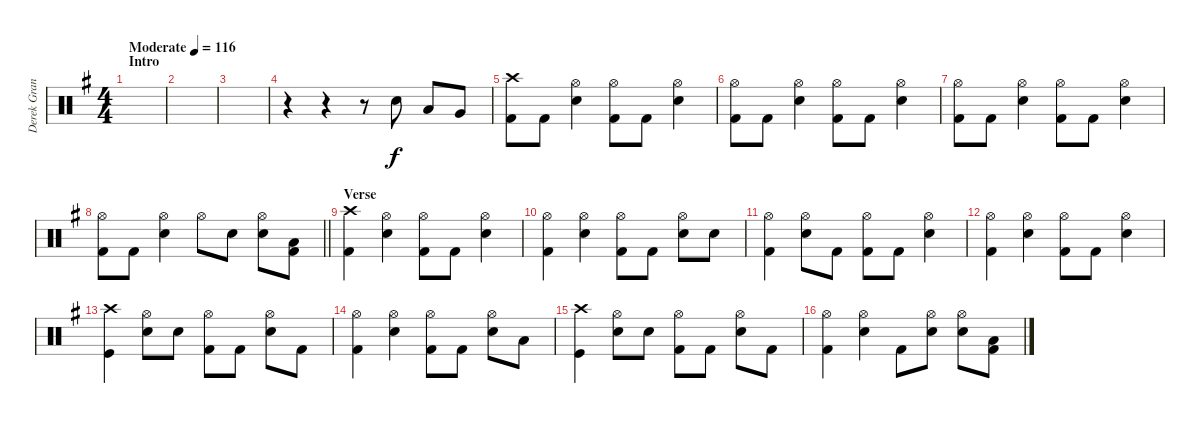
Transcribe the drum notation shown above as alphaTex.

\track ("Derek Grant - Drums" "Derek Gran") {instrument percussion}
\staff {score}
\articulation defaults
\ts (4 4)
\section ("" "Intro")
\tempo (116 "Moderate")
\clef neutral
\ks g
|
|
|
r.4 r.4 r.8 "Snare (hit) 2".8 "Low Tom (hit)".8 "Very Low Tom (hit)".8 |
("Crash high (hit)" "Kick (hit) 2").8 "Kick (hit) 2".8 ("Hi-Hat (open)" "Snare (hit) 2").4 ("Hi-Hat (open)" "Kick (hit) 2").8 "Kick (hit) 2".8 ("Hi-Hat (open)" "Snare (hit) 2").4 |
("Hi-Hat (open)" "Kick (hit) 2").8 "Kick (hit) 2".8 ("Hi-Hat (open)" "Snare (hit) 2").4 ("Hi-Hat (open)" "Kick (hit) 2").8 "Kick (hit) 2".8 ("Hi-Hat (open)" "Snare (hit) 2").4 |
("Hi-Hat (open)" "Kick (hit) 2").8 "Kick (hit) 2".8 ("Hi-Hat (open)" "Snare (hit) 2").4 ("Hi-Hat (open)" "Kick (hit) 2").8 "Kick (hit) 2".8 ("Hi-Hat (open)" "Snare (hit) 2").4 |
\barLineRight lightlight
("Hi-Hat (open)" "Kick (hit) 2").8 "Kick (hit) 2".8 ("Hi-Hat (open)" "Snare (hit) 2").4 "Hi-Hat (open)".8 "Snare (hit) 2".8 ("Hi-Hat (open)" "Snare (hit) 2").8 ("Low Floor Tom (hit)" "Kick (hit) 2").8 |
\section ("" "Verse")
("Crash high (hit)" "Kick (hit) 2").4 ("Hi-Hat (open)" "Snare (hit) 2").4 ("Hi-Hat (open)" "Kick (hit) 2").8 "Kick (hit) 2".8 ("Hi-Hat (open)" "Snare (hit) 2").4 |
("Hi-Hat (open)" "Kick (hit) 2").4 ("Hi-Hat (open)" "Snare (hit) 2").4 ("Hi-Hat (open)" "Kick (hit) 2").8 "Kick (hit) 2".8 ("Hi-Hat (open)" "Snare (hit) 2").8 "Snare (hit) 2".8 |
("Hi-Hat (open)" "Kick (hit) 2").4 ("Hi-Hat (open)" "Snare (hit) 2").8 "Kick (hit) 2".8 ("Hi-Hat (open)" "Kick (hit) 2").8 "Kick (hit) 2".8 ("Hi-Hat (open)" "Snare (hit) 2").4 |
("Hi-Hat (open)" "Kick (hit) 2").4 ("Hi-Hat (open)" "Snare (hit) 2").4 ("Hi-Hat (open)" "Kick (hit) 2").8 "Kick (hit) 2".8 ("Hi-Hat (open)" "Snare (hit) 2").4 |
("Kick (hit)" "Crash high (hit)").4 ("Snare (hit) 2" "Hi-Hat (open)").8 "Snare (hit) 2".8 ("Hi-Hat (open)" "Kick (hit) 2").8 "Kick (hit) 2".8 ("Snare (hit) 2" "Hi-Hat (open)").8 "Kick (hit) 2".8 |
("Kick (hit) 2" "Hi-Hat (open)").4 ("Hi-Hat (open)" "Snare (hit) 2").4 ("Kick (hit) 2" "Hi-Hat (open)").8 "Kick (hit) 2".8 ("Snare (hit) 2" "Hi-Hat (open)").8 "Low Tom (hit)".8 |
("Kick (hit)" "Crash high (hit)").4 ("Snare (hit) 2" "Hi-Hat (open)").8 "Snare (hit) 2".8 ("Hi-Hat (open)" "Kick (hit) 2").8 "Kick (hit) 2".8 ("Snare (hit) 2" "Hi-Hat (open)").8 "Kick (hit) 2".8 |
("Kick (hit) 2" "Hi-Hat (open)").4 ("Hi-Hat (open)" "Snare (hit) 2").4 "Kick (hit) 2".8 ("Hi-Hat (open)" "Snare (hit) 2").8 ("Snare (hit) 2" "Hi-Hat (open)").8 ("Low Floor Tom (hit)" "Kick (hit) 2").8
